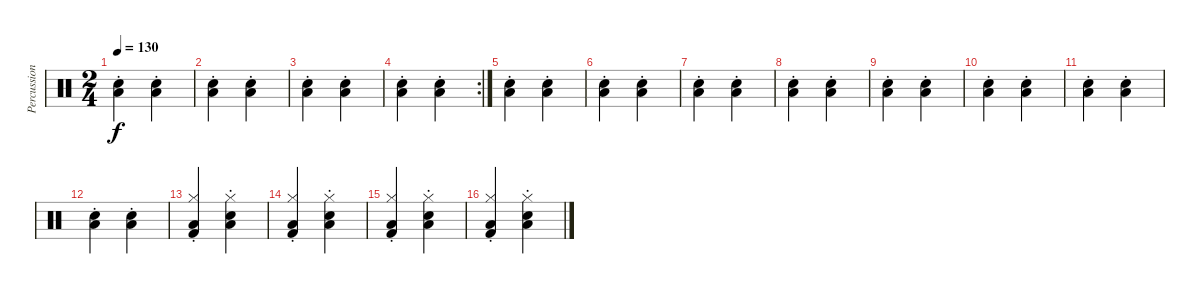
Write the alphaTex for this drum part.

\track ("Percussion" "Percussion") {instrument percussion}
\staff {score}
\articulation defaults
\ts (2 4)
\tempo 130
\clef neutral
\ks c
("Snare (hit) 2"{st} "Low Floor Tom (hit)"{st}).4{dy f} ("Snare (hit) 2"{st} "Low Floor Tom (hit)"{st}).4 |
("Snare (hit) 2"{st} "Low Floor Tom (hit)"{st}).4 ("Snare (hit) 2"{st} "Low Floor Tom (hit)"{st}).4 |
("Snare (hit) 2"{st} "Low Floor Tom (hit)"{st}).4 ("Snare (hit) 2"{st} "Low Floor Tom (hit)"{st}).4 |
\rc 2
("Snare (hit) 2"{st} "Low Floor Tom (hit)"{st}).4 ("Snare (hit) 2"{st} "Low Floor Tom (hit)"{st}).4 |
("Snare (hit) 2"{st} "Low Floor Tom (hit)"{st}).4 ("Snare (hit) 2"{st} "Low Floor Tom (hit)"{st}).4 |
("Snare (hit) 2"{st} "Low Floor Tom (hit)"{st}).4 ("Snare (hit) 2"{st} "Low Floor Tom (hit)"{st}).4 |
("Snare (hit) 2"{st} "Low Floor Tom (hit)"{st}).4 ("Snare (hit) 2"{st} "Low Floor Tom (hit)"{st}).4 |
("Snare (hit) 2"{st} "Low Floor Tom (hit)"{st}).4 ("Snare (hit) 2"{st} "Low Floor Tom (hit)"{st}).4 |
("Snare (hit) 2"{st} "Low Floor Tom (hit)"{st}).4 ("Snare (hit) 2"{st} "Low Floor Tom (hit)"{st}).4 |
("Snare (hit) 2"{st} "Low Floor Tom (hit)"{st}).4 ("Snare (hit) 2"{st} "Low Floor Tom (hit)"{st}).4 |
("Snare (hit) 2"{st} "Low Floor Tom (hit)"{st}).4 ("Snare (hit) 2"{st} "Low Floor Tom (hit)"{st}).4 |
("Snare (hit) 2"{st} "Low Floor Tom (hit)"{st}).4 ("Snare (hit) 2"{st} "Low Floor Tom (hit)"{st}).4 |
("Hi-Hat (closed)"{st} "Kick (hit) 2"{st} "Low Floor Tom (hit)"{st}).4 ("Hi-Hat (closed)" "Snare (hit) 2"{st} "Low Floor Tom (hit)"{st}).4 |
("Hi-Hat (closed)"{st} "Kick (hit) 2"{st} "Low Floor Tom (hit)"{st}).4 ("Hi-Hat (closed)" "Snare (hit) 2"{st} "Low Floor Tom (hit)"{st}).4 |
("Hi-Hat (closed)"{st} "Kick (hit) 2"{st} "Low Floor Tom (hit)"{st}).4 ("Hi-Hat (closed)" "Snare (hit) 2"{st} "Low Floor Tom (hit)"{st}).4 |
("Hi-Hat (closed)"{st} "Kick (hit) 2"{st} "Low Floor Tom (hit)"{st}).4 ("Hi-Hat (closed)" "Snare (hit) 2"{st} "Low Floor Tom (hit)"{st}).4
